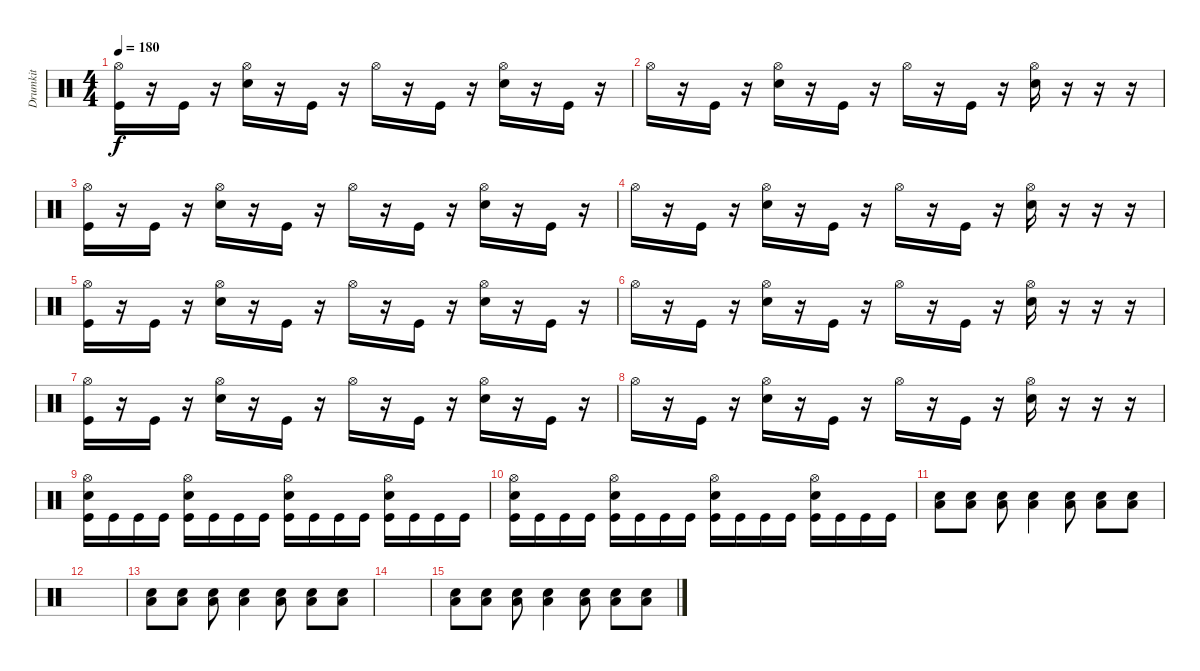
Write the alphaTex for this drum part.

\track ("Drumkit" "Drumkit") {instrument percussion}
\staff {score}
\articulation defaults
\ts (4 4)
\tempo 180
\clef neutral
\ks c
("Hi-Hat (open)" "Kick (hit)").16{dy f} r.16 "Kick (hit)".16 r.16 ("Hi-Hat (open)" "Snare (hit) 2").16 r.16 "Kick (hit)".16 r.16 "Hi-Hat (open)".16 r.16 "Kick (hit)".16 r.16 ("Hi-Hat (open)" "Snare (hit) 2").16 r.16 "Kick (hit)".16 r.16 |
"Hi-Hat (open)".16 r.16 "Kick (hit)".16 r.16 ("Hi-Hat (open)" "Snare (hit) 2").16 r.16 "Kick (hit)".16 r.16 "Hi-Hat (open)".16 r.16 "Kick (hit)".16 r.16 ("Hi-Hat (open)" "Snare (hit) 2").16 r.16 r.16 r.16 |
("Hi-Hat (open)" "Kick (hit)").16 r.16 "Kick (hit)".16 r.16 ("Hi-Hat (open)" "Snare (hit) 2").16 r.16 "Kick (hit)".16 r.16 "Hi-Hat (open)".16 r.16 "Kick (hit)".16 r.16 ("Hi-Hat (open)" "Snare (hit) 2").16 r.16 "Kick (hit)".16 r.16 |
"Hi-Hat (open)".16 r.16 "Kick (hit)".16 r.16 ("Hi-Hat (open)" "Snare (hit) 2").16 r.16 "Kick (hit)".16 r.16 "Hi-Hat (open)".16 r.16 "Kick (hit)".16 r.16 ("Hi-Hat (open)" "Snare (hit) 2").16 r.16 r.16 r.16 |
("Hi-Hat (open)" "Kick (hit)").16 r.16 "Kick (hit)".16 r.16 ("Hi-Hat (open)" "Snare (hit) 2").16 r.16 "Kick (hit)".16 r.16 "Hi-Hat (open)".16 r.16 "Kick (hit)".16 r.16 ("Hi-Hat (open)" "Snare (hit) 2").16 r.16 "Kick (hit)".16 r.16 |
"Hi-Hat (open)".16 r.16 "Kick (hit)".16 r.16 ("Hi-Hat (open)" "Snare (hit) 2").16 r.16 "Kick (hit)".16 r.16 "Hi-Hat (open)".16 r.16 "Kick (hit)".16 r.16 ("Hi-Hat (open)" "Snare (hit) 2").16 r.16 r.16 r.16 |
("Hi-Hat (open)" "Kick (hit)").16 r.16 "Kick (hit)".16 r.16 ("Hi-Hat (open)" "Snare (hit) 2").16 r.16 "Kick (hit)".16 r.16 "Hi-Hat (open)".16 r.16 "Kick (hit)".16 r.16 ("Hi-Hat (open)" "Snare (hit) 2").16 r.16 "Kick (hit)".16 r.16 |
"Hi-Hat (open)".16 r.16 "Kick (hit)".16 r.16 ("Hi-Hat (open)" "Snare (hit) 2").16 r.16 "Kick (hit)".16 r.16 "Hi-Hat (open)".16 r.16 "Kick (hit)".16 r.16 ("Hi-Hat (open)" "Snare (hit) 2").16 r.16 r.16 r.16 |
("Hi-Hat (open)" "Snare (hit) 2" "Kick (hit)").16 "Kick (hit)".16 "Kick (hit)".16 "Kick (hit)".16 ("Hi-Hat (open)" "Snare (hit) 2" "Kick (hit)").16 "Kick (hit)".16 "Kick (hit)".16 "Kick (hit)".16 ("Hi-Hat (open)" "Snare (hit) 2" "Kick (hit)").16 "Kick (hit)".16 "Kick (hit)".16 "Kick (hit)".16 ("Hi-Hat (open)" "Snare (hit) 2" "Kick (hit)").16 "Kick (hit)".16 "Kick (hit)".16 "Kick (hit)".16 |
("Hi-Hat (open)" "Snare (hit) 2" "Kick (hit)").16 "Kick (hit)".16 "Kick (hit)".16 "Kick (hit)".16 ("Hi-Hat (open)" "Snare (hit) 2" "Kick (hit)").16 "Kick (hit)".16 "Kick (hit)".16 "Kick (hit)".16 ("Hi-Hat (open)" "Snare (hit) 2" "Kick (hit)").16 "Kick (hit)".16 "Kick (hit)".16 "Kick (hit)".16 ("Hi-Hat (open)" "Snare (hit) 2" "Kick (hit)").16 "Kick (hit)".16 "Kick (hit)".16 "Kick (hit)".16 |
("Snare (hit) 2" "Low Floor Tom (hit)").8 ("Snare (hit) 2" "Low Floor Tom (hit)").8 ("Snare (hit) 2" "Low Floor Tom (hit)").8 ("Snare (hit) 2" "Low Floor Tom (hit)").4 ("Snare (hit) 2" "Low Floor Tom (hit)").8 ("Snare (hit) 2" "Low Floor Tom (hit)").8 ("Snare (hit) 2" "Low Floor Tom (hit)").8 |
|
("Snare (hit) 2" "Low Floor Tom (hit)").8 ("Snare (hit) 2" "Low Floor Tom (hit)").8 ("Snare (hit) 2" "Low Floor Tom (hit)").8 ("Snare (hit) 2" "Low Floor Tom (hit)").4 ("Snare (hit) 2" "Low Floor Tom (hit)").8 ("Snare (hit) 2" "Low Floor Tom (hit)").8 ("Snare (hit) 2" "Low Floor Tom (hit)").8 |
|
("Snare (hit) 2" "Low Floor Tom (hit)").8 ("Snare (hit) 2" "Low Floor Tom (hit)").8 ("Snare (hit) 2" "Low Floor Tom (hit)").8 ("Snare (hit) 2" "Low Floor Tom (hit)").4 ("Snare (hit) 2" "Low Floor Tom (hit)").8 ("Snare (hit) 2" "Low Floor Tom (hit)").8 ("Snare (hit) 2" "Low Floor Tom (hit)").8
